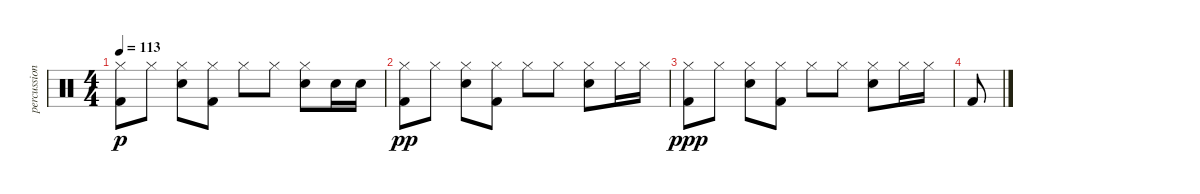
\track ("percussion" "percussion") {instrument percussion}
\staff {score}
\articulation defaults
\ts (4 4)
\tempo 113
\clef neutral
\ks c
("Hi-Hat (closed)" "Kick (hit) 2").8{dy p} "Hi-Hat (closed)".8 ("Snare (hit) 2" "Hi-Hat (closed)").8 ("Hi-Hat (closed)" "Kick (hit) 2").8 "Hi-Hat (closed)".8 "Hi-Hat (closed)".8 ("Snare (hit) 2" "Hi-Hat (closed)").8 "Snare (hit) 2".16 "Snare (hit) 2".16 |
("Hi-Hat (closed)" "Kick (hit) 2").8{dy pp} "Hi-Hat (closed)".8 ("Snare (hit) 2" "Hi-Hat (closed)").8 ("Hi-Hat (closed)" "Kick (hit) 2").8 "Hi-Hat (closed)".8 "Hi-Hat (closed)".8 ("Snare (hit) 2" "Hi-Hat (closed)").8 "Hi-Hat (closed)".16 "Hi-Hat (closed)".16 |
("Hi-Hat (closed)" "Kick (hit) 2").8{dy ppp} "Hi-Hat (closed)".8 ("Snare (hit) 2" "Hi-Hat (closed)").8 ("Hi-Hat (closed)" "Kick (hit) 2").8 "Hi-Hat (closed)".8 "Hi-Hat (closed)".8 ("Snare (hit) 2" "Hi-Hat (closed)").8 "Hi-Hat (closed)".16 "Hi-Hat (closed)".16 |
"Kick (hit) 2".8
